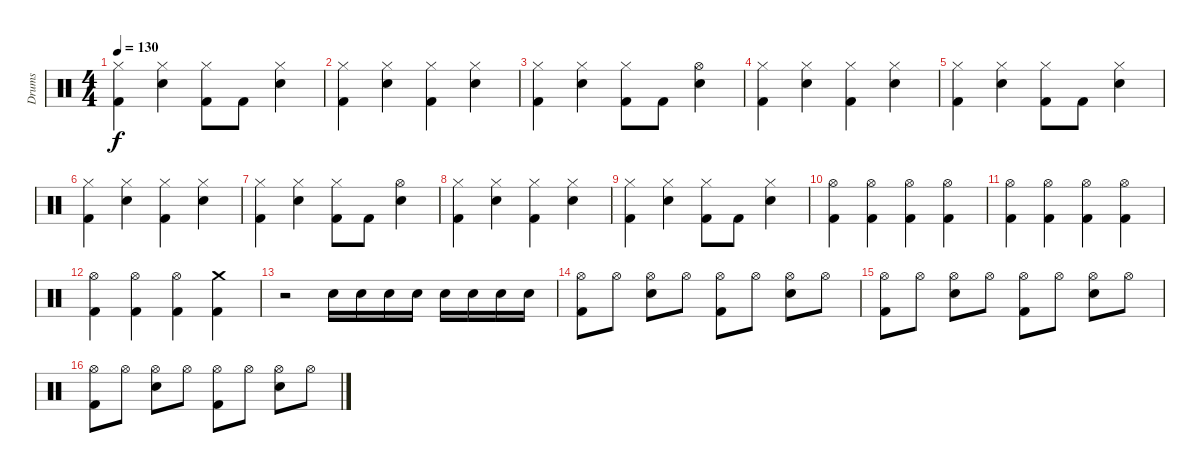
\track ("Drums" "Drums") {instrument percussion}
\staff {score}
\articulation defaults
\ts (4 4)
\tempo 130
\clef neutral
\ks c
("Hi-Hat (closed)" "Kick (hit) 2").4{dy f} ("Hi-Hat (closed)" "Snare (hit) 2").4 ("Hi-Hat (closed)" "Kick (hit) 2").8 "Kick (hit) 2".8 ("Hi-Hat (closed)" "Snare (hit) 2").4 |
("Hi-Hat (closed)" "Kick (hit) 2").4 ("Hi-Hat (closed)" "Snare (hit) 2").4 ("Hi-Hat (closed)" "Kick (hit) 2").4 ("Hi-Hat (closed)" "Snare (hit) 2").4 |
("Hi-Hat (closed)" "Kick (hit) 2").4 ("Hi-Hat (closed)" "Snare (hit) 2").4 ("Hi-Hat (closed)" "Kick (hit) 2").8 "Kick (hit) 2".8 ("Hi-Hat (open)" "Snare (hit) 2").4 |
("Hi-Hat (closed)" "Kick (hit) 2").4 ("Hi-Hat (closed)" "Snare (hit) 2").4 ("Hi-Hat (closed)" "Kick (hit) 2").4 ("Hi-Hat (closed)" "Snare (hit) 2").4 |
("Hi-Hat (closed)" "Kick (hit) 2").4 ("Hi-Hat (closed)" "Snare (hit) 2").4 ("Hi-Hat (closed)" "Kick (hit) 2").8 "Kick (hit) 2".8 ("Hi-Hat (closed)" "Snare (hit) 2").4 |
("Hi-Hat (closed)" "Kick (hit) 2").4 ("Hi-Hat (closed)" "Snare (hit) 2").4 ("Hi-Hat (closed)" "Kick (hit) 2").4 ("Hi-Hat (closed)" "Snare (hit) 2").4 |
("Hi-Hat (closed)" "Kick (hit) 2").4 ("Hi-Hat (closed)" "Snare (hit) 2").4 ("Hi-Hat (closed)" "Kick (hit) 2").8 "Kick (hit) 2".8 ("Hi-Hat (open)" "Snare (hit) 2").4 |
("Hi-Hat (closed)" "Kick (hit) 2").4 ("Hi-Hat (closed)" "Snare (hit) 2").4 ("Hi-Hat (closed)" "Kick (hit) 2").4 ("Hi-Hat (closed)" "Snare (hit) 2").4 |
("Hi-Hat (closed)" "Kick (hit) 2").4 ("Hi-Hat (closed)" "Snare (hit) 2").4 ("Hi-Hat (closed)" "Kick (hit) 2").8 "Kick (hit) 2".8 ("Hi-Hat (closed)" "Snare (hit) 2").4 |
("Hi-Hat (open)" "Kick (hit) 2").4 ("Hi-Hat (open)" "Kick (hit) 2").4 ("Hi-Hat (open)" "Kick (hit) 2").4 ("Hi-Hat (open)" "Kick (hit) 2").4 |
("Hi-Hat (open)" "Kick (hit) 2").4 ("Hi-Hat (open)" "Kick (hit) 2").4 ("Hi-Hat (open)" "Kick (hit) 2").4 ("Hi-Hat (open)" "Kick (hit) 2").4 |
("Hi-Hat (open)" "Kick (hit) 2").4 ("Hi-Hat (open)" "Kick (hit) 2").4 ("Hi-Hat (open)" "Kick (hit) 2").4 ("Crash medium (hit)" "Kick (hit) 2").4 |
r.2 "Snare (hit) 2".16 "Snare (hit) 2".16 "Snare (hit) 2".16 "Snare (hit) 2".16 "Snare (hit) 2".16 "Snare (hit) 2".16 "Snare (hit) 2".16 "Snare (hit) 2".16 |
("Hi-Hat (open)" "Kick (hit) 2").8 "Hi-Hat (open)".8 ("Hi-Hat (open)" "Snare (hit) 2").8 "Hi-Hat (open)".8 ("Hi-Hat (open)" "Kick (hit) 2").8 "Hi-Hat (open)".8 ("Hi-Hat (open)" "Snare (hit) 2").8 "Hi-Hat (open)".8 |
("Hi-Hat (open)" "Kick (hit) 2").8 "Hi-Hat (open)".8 ("Hi-Hat (open)" "Snare (hit) 2").8 "Hi-Hat (open)".8 ("Hi-Hat (open)" "Kick (hit) 2").8 "Hi-Hat (open)".8 ("Hi-Hat (open)" "Snare (hit) 2").8 "Hi-Hat (open)".8 |
("Hi-Hat (open)" "Kick (hit) 2").8 "Hi-Hat (open)".8 ("Hi-Hat (open)" "Snare (hit) 2").8 "Hi-Hat (open)".8 ("Hi-Hat (open)" "Kick (hit) 2").8 "Hi-Hat (open)".8 ("Hi-Hat (open)" "Snare (hit) 2").8 "Hi-Hat (open)".8
